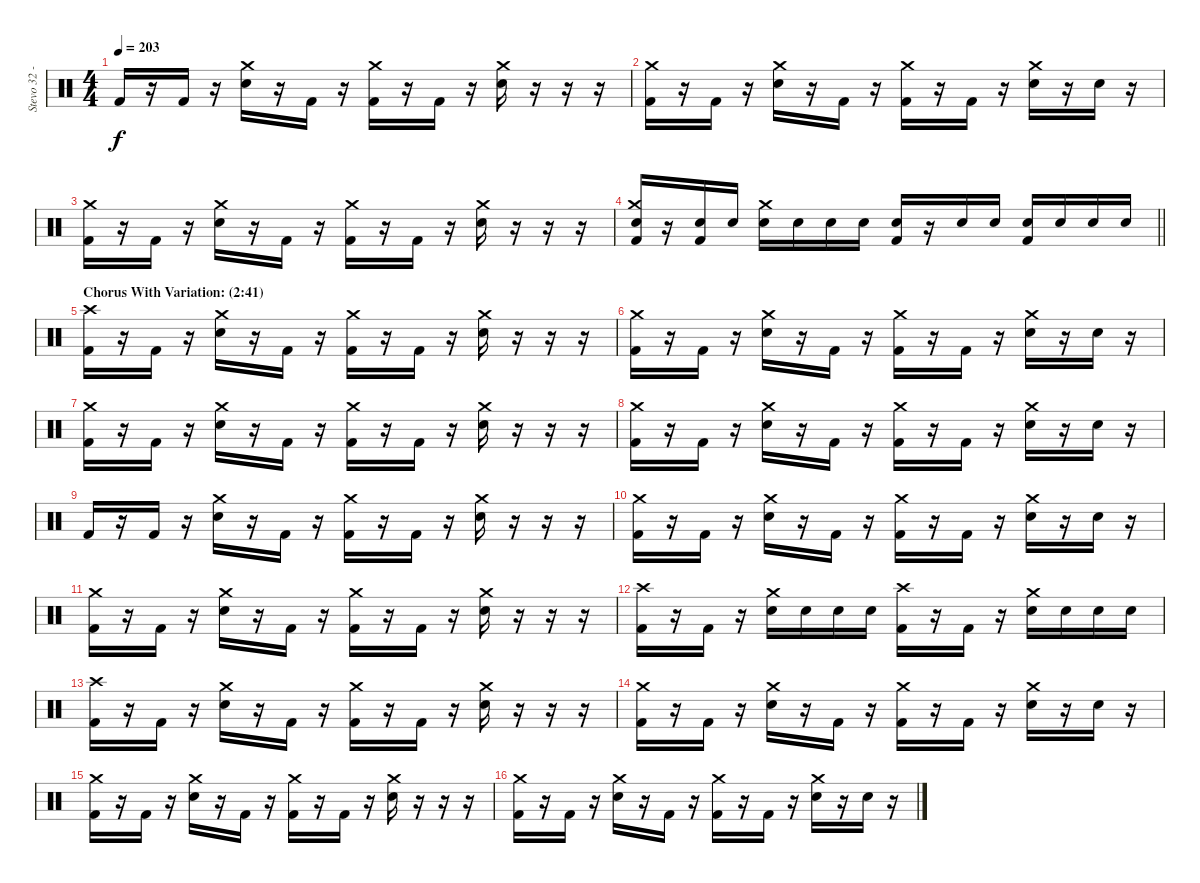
\track ("Stevo 32 - Drums" "Stevo 32 -") {instrument percussion}
\staff {score}
\articulation defaults
\ts (4 4)
\tempo 203
\clef neutral
\ks c "Kick (hit) 2".16{dy f}
r.16 "Kick (hit) 2".16 r.16 ("Crash medium (hit)" "Snare (hit) 2").16 r.16 "Kick (hit) 2".16 r.16 ("Crash medium (hit)" "Kick (hit) 2").16 r.16 "Kick (hit) 2".16 r.16 ("Crash medium (hit)" "Snare (hit) 2").16 r.16 r.16 r.16 |
("Crash medium (hit)" "Kick (hit) 2").16 r.16 "Kick (hit) 2".16 r.16 ("Crash medium (hit)" "Snare (hit) 2").16 r.16 "Kick (hit) 2".16 r.16 ("Crash medium (hit)" "Kick (hit) 2").16 r.16 "Kick (hit) 2".16 r.16 ("Crash medium (hit)" "Snare (hit) 2").16 r.16 "Snare (hit) 2".16 r.16 |
("Crash medium (hit)" "Kick (hit) 2").16 r.16 "Kick (hit) 2".16 r.16 ("Crash medium (hit)" "Snare (hit) 2").16 r.16 "Kick (hit) 2".16 r.16 ("Crash medium (hit)" "Kick (hit) 2").16 r.16 "Kick (hit) 2".16 r.16 ("Crash medium (hit)" "Snare (hit) 2").16 r.16 r.16 r.16 |
\barLineRight lightlight
("Crash medium (hit)" "Snare (hit) 2" "Kick (hit) 2").16 r.16 ("Snare (hit) 2" "Kick (hit) 2").16 "Snare (hit) 2".16 ("Crash medium (hit)" "Snare (hit) 2").16 "Snare (hit) 2".16 "Snare (hit) 2".16 "Snare (hit) 2".16 ("Snare (hit) 2" "Kick (hit) 2").16 r.16 "Snare (hit) 2".16 "Snare (hit) 2".16 ("Snare (hit) 2" "Kick (hit) 2").16 "Snare (hit) 2".16 "Snare (hit) 2".16 "Snare (hit) 2".16 |
\section ("" "Chorus With Variation: (2:41) ")
("Crash high (hit)" "Kick (hit) 2").16 r.16 "Kick (hit) 2".16 r.16 ("Crash medium (hit)" "Snare (hit) 2").16 r.16 "Kick (hit) 2".16 r.16 ("Crash medium (hit)" "Kick (hit) 2").16 r.16 "Kick (hit) 2".16 r.16 ("Crash medium (hit)" "Snare (hit) 2").16 r.16 r.16 r.16 |
("Crash medium (hit)" "Kick (hit) 2").16 r.16 "Kick (hit) 2".16 r.16 ("Crash medium (hit)" "Snare (hit) 2").16 r.16 "Kick (hit) 2".16 r.16 ("Crash medium (hit)" "Kick (hit) 2").16 r.16 "Kick (hit) 2".16 r.16 ("Crash medium (hit)" "Snare (hit) 2").16 r.16 "Snare (hit) 2".16 r.16 |
("Crash medium (hit)" "Kick (hit) 2").16 r.16 "Kick (hit) 2".16 r.16 ("Crash medium (hit)" "Snare (hit) 2").16 r.16 "Kick (hit) 2".16 r.16 ("Crash medium (hit)" "Kick (hit) 2").16 r.16 "Kick (hit) 2".16 r.16 ("Crash medium (hit)" "Snare (hit) 2").16 r.16 r.16 r.16 |
("Crash medium (hit)" "Kick (hit) 2").16 r.16 "Kick (hit) 2".16 r.16 ("Crash medium (hit)" "Snare (hit) 2").16 r.16 "Kick (hit) 2".16 r.16 ("Crash medium (hit)" "Kick (hit) 2").16 r.16 "Kick (hit) 2".16 r.16 ("Crash medium (hit)" "Snare (hit) 2").16 r.16 "Snare (hit) 2".16 r.16 |
"Kick (hit) 2".16 r.16 "Kick (hit) 2".16 r.16 ("Crash medium (hit)" "Snare (hit) 2").16 r.16 "Kick (hit) 2".16 r.16 ("Crash medium (hit)" "Kick (hit) 2").16 r.16 "Kick (hit) 2".16 r.16 ("Crash medium (hit)" "Snare (hit) 2").16 r.16 r.16 r.16 |
("Crash medium (hit)" "Kick (hit) 2").16 r.16 "Kick (hit) 2".16 r.16 ("Crash medium (hit)" "Snare (hit) 2").16 r.16 "Kick (hit) 2".16 r.16 ("Crash medium (hit)" "Kick (hit) 2").16 r.16 "Kick (hit) 2".16 r.16 ("Crash medium (hit)" "Snare (hit) 2").16 r.16 "Snare (hit) 2".16 r.16 |
("Crash medium (hit)" "Kick (hit) 2").16 r.16 "Kick (hit) 2".16 r.16 ("Crash medium (hit)" "Snare (hit) 2").16 r.16 "Kick (hit) 2".16 r.16 ("Crash medium (hit)" "Kick (hit) 2").16 r.16 "Kick (hit) 2".16 r.16 ("Crash medium (hit)" "Snare (hit) 2").16 r.16 r.16 r.16 |
("Crash high (hit)" "Kick (hit) 2").16 r.16 "Kick (hit) 2".16 r.16 ("Crash medium (hit)" "Snare (hit) 2").16 "Snare (hit) 2".16 "Snare (hit) 2".16 "Snare (hit) 2".16 ("Crash high (hit)" "Kick (hit) 2").16 r.16 "Kick (hit) 2".16 r.16 ("Crash medium (hit)" "Snare (hit) 2").16 "Snare (hit) 2".16 "Snare (hit) 2".16 "Snare (hit) 2".16 |
("Crash high (hit)" "Kick (hit) 2").16 r.16 "Kick (hit) 2".16 r.16 ("Crash medium (hit)" "Snare (hit) 2").16 r.16 "Kick (hit) 2".16 r.16 ("Crash medium (hit)" "Kick (hit) 2").16 r.16 "Kick (hit) 2".16 r.16 ("Crash medium (hit)" "Snare (hit) 2").16 r.16 r.16 r.16 |
("Crash medium (hit)" "Kick (hit) 2").16 r.16 "Kick (hit) 2".16 r.16 ("Crash medium (hit)" "Snare (hit) 2").16 r.16 "Kick (hit) 2".16 r.16 ("Crash medium (hit)" "Kick (hit) 2").16 r.16 "Kick (hit) 2".16 r.16 ("Crash medium (hit)" "Snare (hit) 2").16 r.16 "Snare (hit) 2".16 r.16 |
("Crash medium (hit)" "Kick (hit) 2").16 r.16 "Kick (hit) 2".16 r.16 ("Crash medium (hit)" "Snare (hit) 2").16 r.16 "Kick (hit) 2".16 r.16 ("Crash medium (hit)" "Kick (hit) 2").16 r.16 "Kick (hit) 2".16 r.16 ("Crash medium (hit)" "Snare (hit) 2").16 r.16 r.16 r.16 |
("Crash medium (hit)" "Kick (hit) 2").16 r.16 "Kick (hit) 2".16 r.16 ("Crash medium (hit)" "Snare (hit) 2").16 r.16 "Kick (hit) 2".16 r.16 ("Crash medium (hit)" "Kick (hit) 2").16 r.16 "Kick (hit) 2".16 r.16 ("Crash medium (hit)" "Snare (hit) 2").16 r.16 "Snare (hit) 2".16 r.16
